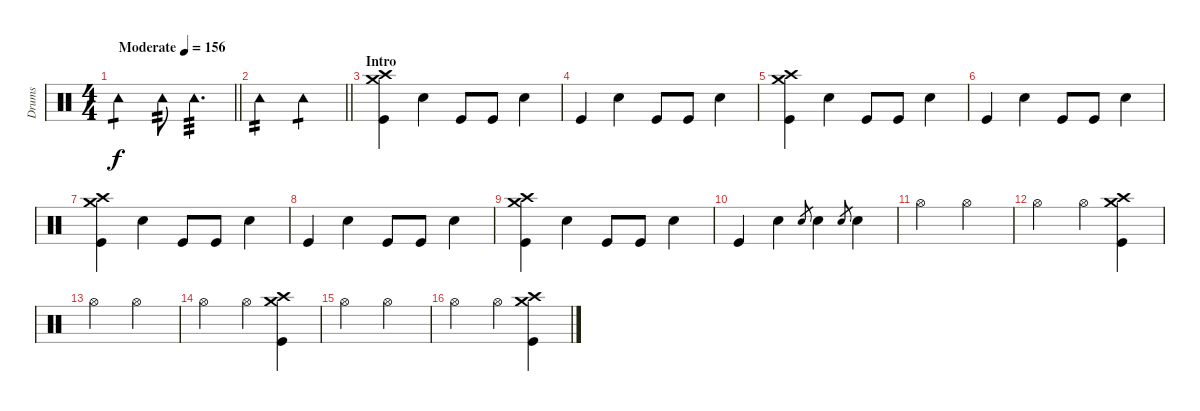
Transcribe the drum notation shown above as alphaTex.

\track ("Drums" "Drums") {instrument percussion}
\staff {score}
\articulation defaults
\ts (4 4)
\tempo (156 "Moderate")
\clef neutral
\barLineRight lightlight
\ks c "Tambourine (hit)".2{tp 1 dy f} "Tambourine (hit)".8{tp 2} "Tambourine (hit)".4{d tp 3}
|
\barLineRight lightlight "Tambourine (hit)".2{tp 2} "Tambourine (hit)".2{tp 1}
|
\section ("" "Intro")
("Crash high (hit)" "Crash medium (hit)" "Kick (hit)").4 "Snare (hit) 2".4 "Kick (hit)".8 "Kick (hit)".8 "Snare (hit) 2".4 |
"Kick (hit)".4 "Snare (hit) 2".4 "Kick (hit)".8 "Kick (hit)".8 "Snare (hit) 2".4 |
("Crash high (hit)" "Crash medium (hit)" "Kick (hit)").4 "Snare (hit) 2".4 "Kick (hit)".8 "Kick (hit)".8 "Snare (hit) 2".4 |
"Kick (hit)".4 "Snare (hit) 2".4 "Kick (hit)".8 "Kick (hit)".8 "Snare (hit) 2".4 |
("Crash high (hit)" "Crash medium (hit)" "Kick (hit)").4 "Snare (hit) 2".4 "Kick (hit)".8 "Kick (hit)".8 "Snare (hit) 2".4 |
"Kick (hit)".4 "Snare (hit) 2".4 "Kick (hit)".8 "Kick (hit)".8 "Snare (hit) 2".4 |
("Crash high (hit)" "Crash medium (hit)" "Kick (hit)").4 "Snare (hit) 2".4 "Kick (hit)".8 "Kick (hit)".8 "Snare (hit) 2".4 |
"Kick (hit)".4 "Snare (hit) 2".4 "Snare (hit) 2".8{gr} "Snare (hit) 2".4 "Snare (hit) 2".8{gr} "Snare (hit) 2".4 |
"Hi-Hat (open)".2 "Hi-Hat (open)".2 |
"Hi-Hat (open)".2 "Hi-Hat (open)".4 ("Crash high (hit)" "Crash medium (hit)" "Kick (hit)").4 |
"Hi-Hat (open)".2 "Hi-Hat (open)".2 |
"Hi-Hat (open)".2 "Hi-Hat (open)".4 ("Crash high (hit)" "Crash medium (hit)" "Kick (hit)").4 |
"Hi-Hat (open)".2 "Hi-Hat (open)".2 |
"Hi-Hat (open)".2 "Hi-Hat (open)".4 ("Crash high (hit)" "Crash medium (hit)" "Kick (hit)").4
